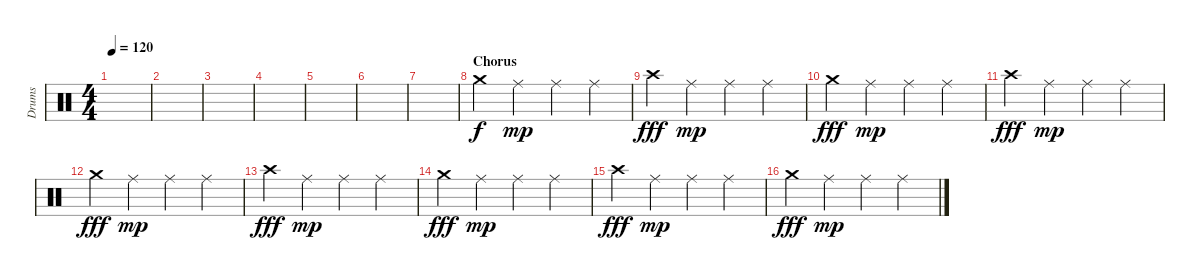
\track ("Drums" "Drums") {instrument percussion}
\staff {score}
\articulation defaults
\ts (4 4)
\tempo 120
\clef neutral
\ks c
|
|
|
|
|
|
|
\section ("" "Chorus")
"Crash medium (hit)".4 "Ride (middle)".4{dy mp} "Ride (middle)".4 "Ride (middle)".4 |
"Crash high (hit)".4{dy fff} "Ride (middle)".4{dy mp} "Ride (middle)".4 "Ride (middle)".4 |
"Crash medium (hit)".4{dy fff} "Ride (middle)".4{dy mp} "Ride (middle)".4 "Ride (middle)".4 |
"Crash high (hit)".4{dy fff} "Ride (middle)".4{dy mp} "Ride (middle)".4 "Ride (middle)".4 |
"Crash medium (hit)".4{dy fff} "Ride (middle)".4{dy mp} "Ride (middle)".4 "Ride (middle)".4 |
"Crash high (hit)".4{dy fff} "Ride (middle)".4{dy mp} "Ride (middle)".4 "Ride (middle)".4 |
"Crash medium (hit)".4{dy fff} "Ride (middle)".4{dy mp} "Ride (middle)".4 "Ride (middle)".4 |
"Crash high (hit)".4{dy fff} "Ride (middle)".4{dy mp} "Ride (middle)".4 "Ride (middle)".4 |
"Crash medium (hit)".4{dy fff} "Ride (middle)".4{dy mp} "Ride (middle)".4 "Ride (middle)".4
